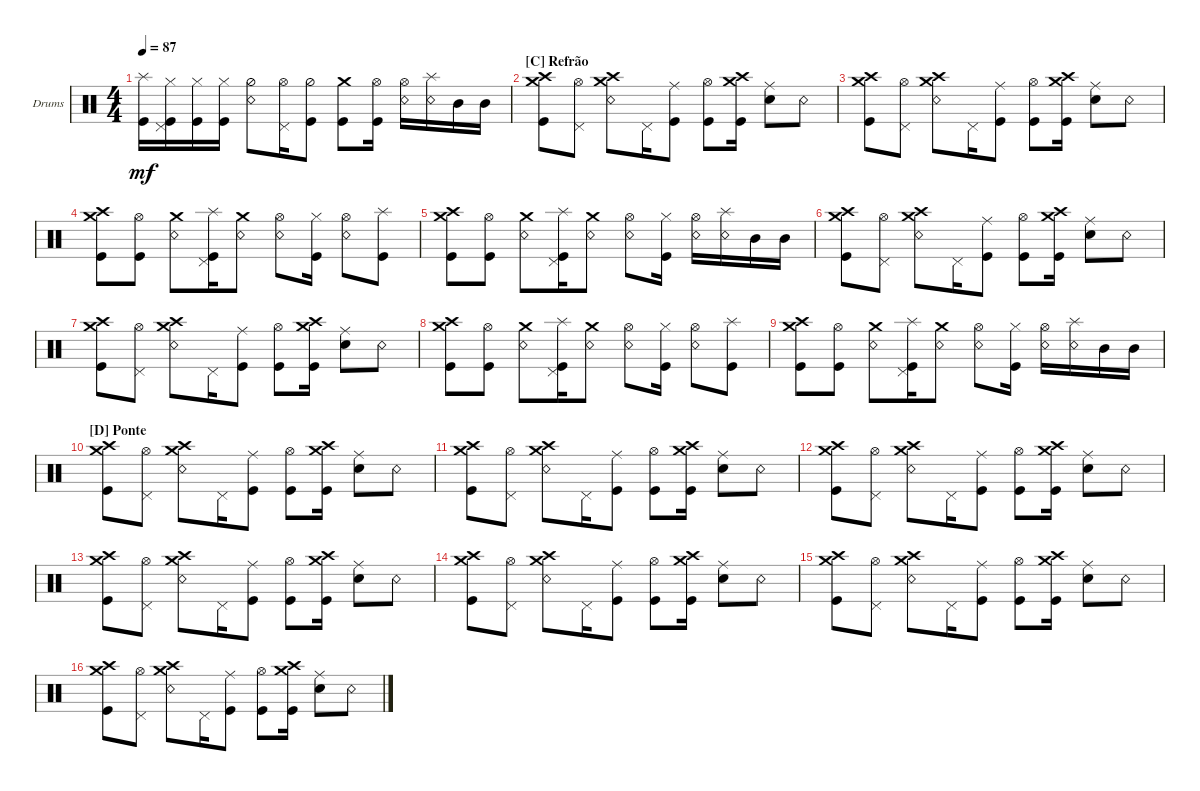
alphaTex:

\defaultSystemsLayout 4
\bracketExtendMode groupsimilarinstruments
\firstSystemTrackNameOrientation horizontal
\otherSystemsTrackNameOrientation horizontal
\track ("Drumkit" "Drums") {multiBarRest instrument percussion}
\staff {score}
\articulation defaults
\ts (4 4)
\tempo 87
\clef neutral
\ks c
("Kick (hit)" "Splash (hit)").16{dy mf} ("Kick (hit)" "Pedal Hi-Hat (hit)" "Hi-Hat (closed)").16 ("Kick (hit)" "Hi-Hat (closed)").16 ("Kick (hit)" "Hi-Hat (closed)").16 ("Snare (rim shot)" "Hi-Hat (half)").8 ("Pedal Hi-Hat (hit)" "Hi-Hat (open)").16 ("Kick (hit)" "Hi-Hat (half)").8 ("Kick (hit)" "Crash medium (hit)").8 ("Kick (hit)" "Hi-Hat (open)").16 ("Snare (rim shot)" "Hi-Hat (open)").16 ("Splash (hit)" "Snare (rim shot)").16 "Mid Tom (hit)".16 "Mid Tom (hit)".16 |
\section ("C" "Refrão")
("Kick (hit)" "Crash high (hit)" "Crash medium (hit)").8 ("Hi-Hat (open)" "Pedal Hi-Hat (hit)").8 ("Snare (rim shot)" "Crash high (hit)" "Crash medium (hit)").8 "Pedal Hi-Hat (hit)".16 ("Ride (middle)" "Kick (hit)").8 ("Kick (hit)" "Hi-Hat (open)").8 ("Kick (hit)" "Crash high (hit)" "Crash medium (hit)").16 ("Ride (middle)" "Snare (hit) 2").8 "Snare (rim shot)".8 |
("Kick (hit)" "Crash high (hit)" "Crash medium (hit)").8 ("Hi-Hat (open)" "Pedal Hi-Hat (hit)").8 ("Snare (rim shot)" "Crash high (hit)" "Crash medium (hit)").8 "Pedal Hi-Hat (hit)".16 ("Ride (middle)" "Kick (hit)").8 ("Kick (hit)" "Hi-Hat (open)").8 ("Kick (hit)" "Crash high (hit)" "Crash medium (hit)").16 ("Ride (middle)" "Snare (hit) 2").8 "Snare (rim shot)".8 |
("Kick (hit)" "Crash high (hit)" "Crash medium (hit)").8 ("Kick (hit)" "Hi-Hat (open)").8 ("Snare (rim shot)" "Crash medium (hit)").8 ("Kick (hit)" "Pedal Hi-Hat (hit)" "Splash (hit)").16 ("Snare (rim shot)" "Crash medium (hit)").8 ("Snare (rim shot)" "Hi-Hat (open)").8 ("Kick (hit)" "Hi-Hat (closed)").16 ("Snare (rim shot)" "Hi-Hat (open)").8 ("Kick (hit)" "Splash (hit)").8 |
("Kick (hit)" "Crash high (hit)" "Crash medium (hit)").8 ("Kick (hit)" "Hi-Hat (open)").8 ("Snare (rim shot)" "Crash medium (hit)").8 ("Kick (hit)" "Pedal Hi-Hat (hit)" "Splash (hit)").16 ("Snare (rim shot)" "Crash medium (hit)").8 ("Snare (rim shot)" "Hi-Hat (open)").8 ("Kick (hit)" "Hi-Hat (closed)").16 ("Snare (rim shot)" "Hi-Hat (open)").16 ("Splash (hit)" "Snare (rim shot)").16 "Mid Tom (hit)".16 "Mid Tom (hit)".16 |
("Kick (hit)" "Crash high (hit)" "Crash medium (hit)").8 ("Hi-Hat (open)" "Pedal Hi-Hat (hit)").8 ("Snare (rim shot)" "Crash high (hit)" "Crash medium (hit)").8 "Pedal Hi-Hat (hit)".16 ("Ride (middle)" "Kick (hit)").8 ("Kick (hit)" "Hi-Hat (open)").8 ("Kick (hit)" "Crash high (hit)" "Crash medium (hit)").16 ("Ride (middle)" "Snare (hit) 2").8 "Snare (rim shot)".8 |
("Kick (hit)" "Crash high (hit)" "Crash medium (hit)").8 ("Hi-Hat (open)" "Pedal Hi-Hat (hit)").8 ("Snare (rim shot)" "Crash high (hit)" "Crash medium (hit)").8 "Pedal Hi-Hat (hit)".16 ("Ride (middle)" "Kick (hit)").8 ("Kick (hit)" "Hi-Hat (open)").8 ("Kick (hit)" "Crash high (hit)" "Crash medium (hit)").16 ("Ride (middle)" "Snare (hit) 2").8 "Snare (rim shot)".8 |
("Kick (hit)" "Crash high (hit)" "Crash medium (hit)").8 ("Kick (hit)" "Hi-Hat (open)").8 ("Snare (rim shot)" "Crash medium (hit)").8 ("Kick (hit)" "Pedal Hi-Hat (hit)" "Splash (hit)").16 ("Snare (rim shot)" "Crash medium (hit)").8 ("Snare (rim shot)" "Hi-Hat (open)").8 ("Kick (hit)" "Hi-Hat (closed)").16 ("Snare (rim shot)" "Hi-Hat (open)").8 ("Kick (hit)" "Splash (hit)").8 |
("Kick (hit)" "Crash high (hit)" "Crash medium (hit)").8 ("Kick (hit)" "Hi-Hat (open)").8 ("Snare (rim shot)" "Crash medium (hit)").8 ("Kick (hit)" "Pedal Hi-Hat (hit)" "Splash (hit)").16 ("Snare (rim shot)" "Crash medium (hit)").8 ("Snare (rim shot)" "Hi-Hat (open)").8 ("Kick (hit)" "Hi-Hat (closed)").16 ("Snare (rim shot)" "Hi-Hat (open)").16 ("Splash (hit)" "Snare (rim shot)").16 "Mid Tom (hit)".16 "Mid Tom (hit)".16 |
\section ("D" "Ponte")
("Kick (hit)" "Crash high (hit)" "Crash medium (hit)").8 ("Hi-Hat (open)" "Pedal Hi-Hat (hit)").8 ("Snare (rim shot)" "Crash high (hit)" "Crash medium (hit)").8 "Pedal Hi-Hat (hit)".16 ("Ride (middle)" "Kick (hit)").8 ("Kick (hit)" "Hi-Hat (open)").8 ("Kick (hit)" "Crash high (hit)" "Crash medium (hit)").16 ("Ride (middle)" "Snare (hit) 2").8 "Snare (rim shot)".8 |
("Kick (hit)" "Crash high (hit)" "Crash medium (hit)").8 ("Hi-Hat (open)" "Pedal Hi-Hat (hit)").8 ("Snare (rim shot)" "Crash high (hit)" "Crash medium (hit)").8 "Pedal Hi-Hat (hit)".16 ("Ride (middle)" "Kick (hit)").8 ("Kick (hit)" "Hi-Hat (open)").8 ("Kick (hit)" "Crash high (hit)" "Crash medium (hit)").16 ("Ride (middle)" "Snare (hit) 2").8 "Snare (rim shot)".8 |
("Kick (hit)" "Crash high (hit)" "Crash medium (hit)").8 ("Hi-Hat (open)" "Pedal Hi-Hat (hit)").8 ("Snare (rim shot)" "Crash high (hit)" "Crash medium (hit)").8 "Pedal Hi-Hat (hit)".16 ("Ride (middle)" "Kick (hit)").8 ("Kick (hit)" "Hi-Hat (open)").8 ("Kick (hit)" "Crash high (hit)" "Crash medium (hit)").16 ("Ride (middle)" "Snare (hit) 2").8 "Snare (rim shot)".8 |
("Kick (hit)" "Crash high (hit)" "Crash medium (hit)").8 ("Hi-Hat (open)" "Pedal Hi-Hat (hit)").8 ("Snare (rim shot)" "Crash high (hit)" "Crash medium (hit)").8 "Pedal Hi-Hat (hit)".16 ("Ride (middle)" "Kick (hit)").8 ("Kick (hit)" "Hi-Hat (open)").8 ("Kick (hit)" "Crash high (hit)" "Crash medium (hit)").16 ("Ride (middle)" "Snare (hit) 2").8 "Snare (rim shot)".8 |
("Kick (hit)" "Crash high (hit)" "Crash medium (hit)").8 ("Hi-Hat (open)" "Pedal Hi-Hat (hit)").8 ("Snare (rim shot)" "Crash high (hit)" "Crash medium (hit)").8 "Pedal Hi-Hat (hit)".16 ("Ride (middle)" "Kick (hit)").8 ("Kick (hit)" "Hi-Hat (open)").8 ("Kick (hit)" "Crash high (hit)" "Crash medium (hit)").16 ("Ride (middle)" "Snare (hit) 2").8 "Snare (rim shot)".8 |
("Kick (hit)" "Crash high (hit)" "Crash medium (hit)").8 ("Hi-Hat (open)" "Pedal Hi-Hat (hit)").8 ("Snare (rim shot)" "Crash high (hit)" "Crash medium (hit)").8 "Pedal Hi-Hat (hit)".16 ("Ride (middle)" "Kick (hit)").8 ("Kick (hit)" "Hi-Hat (open)").8 ("Kick (hit)" "Crash high (hit)" "Crash medium (hit)").16 ("Ride (middle)" "Snare (hit) 2").8 "Snare (rim shot)".8 |
("Kick (hit)" "Crash high (hit)" "Crash medium (hit)").8 ("Hi-Hat (open)" "Pedal Hi-Hat (hit)").8 ("Snare (rim shot)" "Crash high (hit)" "Crash medium (hit)").8 "Pedal Hi-Hat (hit)".16 ("Ride (middle)" "Kick (hit)").8 ("Kick (hit)" "Hi-Hat (open)").8 ("Kick (hit)" "Crash high (hit)" "Crash medium (hit)").16 ("Ride (middle)" "Snare (hit) 2").8 "Snare (rim shot)".8
